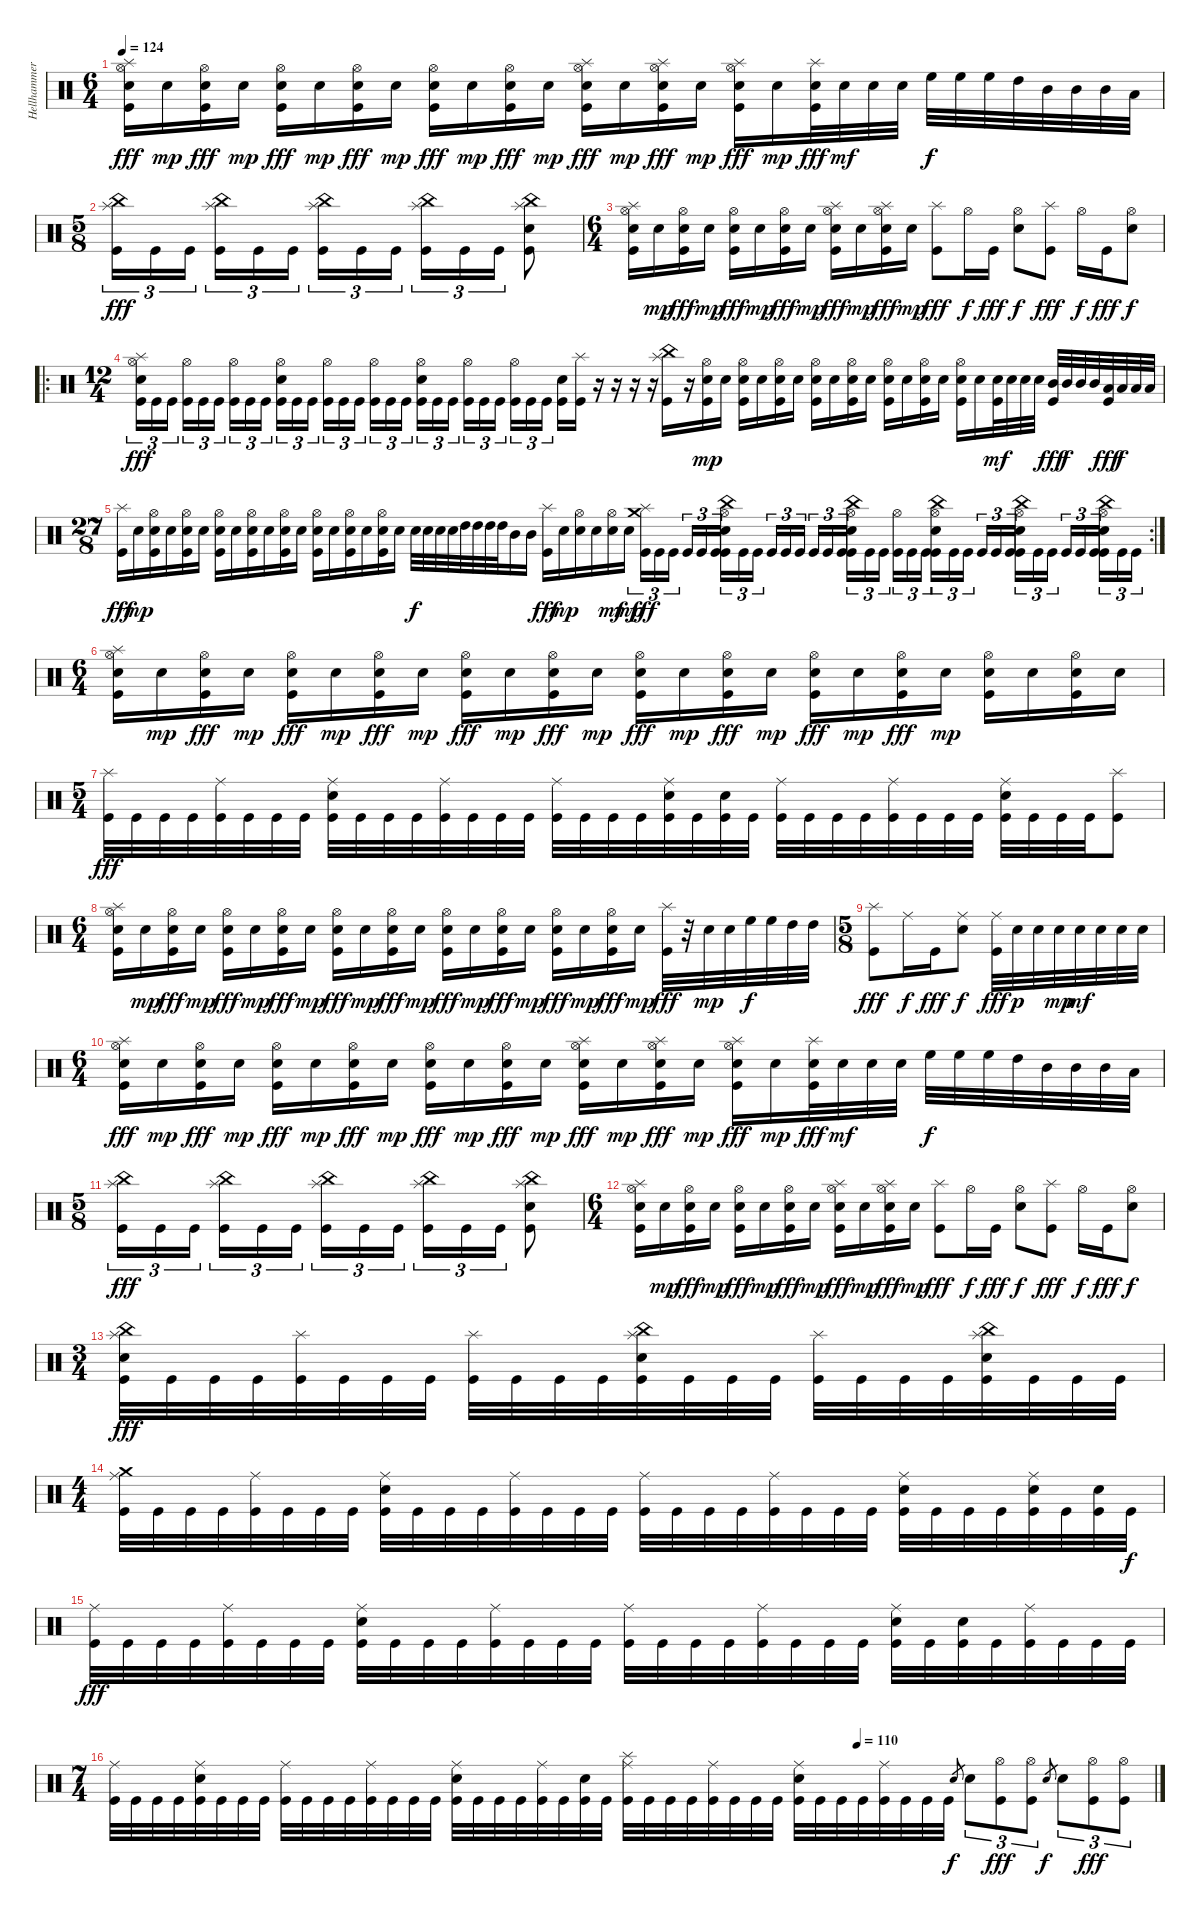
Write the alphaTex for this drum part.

\track ("Hellhammer" "Hellhammer") {instrument percussion}
\staff {score}
\articulation defaults
\ts (6 4)
\tempo 124
\clef neutral
\ks c
("Splash (hit)" "Hi-Hat (open)" "Electric Snare (hit)" "Kick (hit)").16{dy fff balance 8} "Electric Snare (hit)".16{dy mp} ("Hi-Hat (open)" "Electric Snare (hit)" "Kick (hit)").16{dy fff} "Electric Snare (hit)".16{dy mp} ("Hi-Hat (open)" "Electric Snare (hit)" "Kick (hit)").16{dy fff} "Electric Snare (hit)".16{dy mp} ("Hi-Hat (open)" "Electric Snare (hit)" "Kick (hit)").16{dy fff} "Electric Snare (hit)".16{dy mp} ("Hi-Hat (open)" "Electric Snare (hit)" "Kick (hit)").16{dy fff} "Electric Snare (hit)".16{dy mp} ("Hi-Hat (open)" "Electric Snare (hit)" "Kick (hit)").16{dy fff} "Electric Snare (hit)".16{dy mp} ("Splash (hit)" "Hi-Hat (open)" "Electric Snare (hit)" "Kick (hit)").16{dy fff} "Electric Snare (hit)".16{dy mp} ("Splash (hit)" "Hi-Hat (open)" "Electric Snare (hit)" "Kick (hit)").16{dy fff} "Electric Snare (hit)".16{dy mp} ("Splash (hit)" "Hi-Hat (open)" "Electric Snare (hit)" "Kick (hit)").16{dy fff} "Electric Snare (hit)".16{dy mp} ("Splash (hit)" "Electric Snare (hit)" "Kick (hit)").32{dy fff} "Electric Snare (hit)".32{dy mf} "Electric Snare (hit)".32 "Electric Snare (hit)".32 "High Floor Tom (hit)".32{dy f} "High Floor Tom (hit)".32 "High Floor Tom (hit)".32 "High Tom (hit)".32 "Mid Tom (hit)".32 "Mid Tom (hit)".32 "Mid Tom (hit)".32 "Low Tom (hit)".32 |
\ts (5 8)
("China (hit)" "Splash (hit)" "Kick (hit)").16{tu (3 2) dy fff} "Kick (hit)".16{tu (3 2)} "Kick (hit)".16{tu (3 2)} ("China (hit)" "Splash (hit)" "Kick (hit)").16{tu (3 2)} "Kick (hit)".16{tu (3 2)} "Kick (hit)".16{tu (3 2)} ("China (hit)" "Splash (hit)" "Kick (hit)").16{tu (3 2)} "Kick (hit)".16{tu (3 2)} "Kick (hit)".16{tu (3 2)} ("China (hit)" "Splash (hit)" "Kick (hit)").16{tu (3 2)} "Kick (hit)".16{tu (3 2)} "Kick (hit)".16{tu (3 2)} ("China (hit)" "Splash (hit)" "Electric Snare (hit)" "Kick (hit)").8 |
\ts (6 4)
("Splash (hit)" "Hi-Hat (open)" "Electric Snare (hit)" "Kick (hit)").16{balance 8} "Electric Snare (hit)".16{dy mp} ("Hi-Hat (open)" "Electric Snare (hit)" "Kick (hit)").16{dy fff} "Electric Snare (hit)".16{dy mp} ("Hi-Hat (open)" "Electric Snare (hit)" "Kick (hit)").16{dy fff} "Electric Snare (hit)".16{dy mp} ("Hi-Hat (open)" "Electric Snare (hit)" "Kick (hit)").16{dy fff} "Electric Snare (hit)".16{dy mp} ("Splash (hit)" "Hi-Hat (open)" "Electric Snare (hit)" "Kick (hit)").16{dy fff} "Electric Snare (hit)".16{dy mp} ("Splash (hit)" "Hi-Hat (open)" "Electric Snare (hit)" "Kick (hit)").16{dy fff} "Electric Snare (hit)".16{dy mp} ("Splash (hit)" "Kick (hit)").8{dy fff} "Hi-Hat (open)".16{dy f} "Kick (hit)".16{dy fff} ("Hi-Hat (open)" "Electric Snare (hit)").8{dy f} ("Splash (hit)" "Kick (hit)").8{dy fff} "Hi-Hat (open)".16{dy f} "Kick (hit)".16{dy fff} ("Hi-Hat (open)" "Electric Snare (hit)").8{dy f} |
\ro
\ts (12 4)
("Splash (hit)" "Hi-Hat (open)" "Electric Snare (hit)" "Kick (hit)").16{tu (3 2) dy fff} "Kick (hit)".16{tu (3 2)} "Kick (hit)".16{tu (3 2)} ("Hi-Hat (open)" "Kick (hit)").16{tu (3 2)} "Kick (hit)".16{tu (3 2)} "Kick (hit)".16{tu (3 2)} ("Hi-Hat (open)" "Kick (hit)").16{tu (3 2)} "Kick (hit)".16{tu (3 2)} "Kick (hit)".16{tu (3 2)} ("Hi-Hat (open)" "Electric Snare (hit)" "Kick (hit)").16{tu (3 2)} "Kick (hit)".16{tu (3 2)} "Kick (hit)".16{tu (3 2)} ("Hi-Hat (open)" "Kick (hit)").16{tu (3 2)} "Kick (hit)".16{tu (3 2)} "Kick (hit)".16{tu (3 2)} ("Hi-Hat (open)" "Kick (hit)").16{tu (3 2)} "Kick (hit)".16{tu (3 2)} "Kick (hit)".16{tu (3 2)} ("Hi-Hat (open)" "Electric Snare (hit)" "Kick (hit)").16{tu (3 2)} "Kick (hit)".16{tu (3 2)} "Kick (hit)".16{tu (3 2)} ("Hi-Hat (open)" "Kick (hit)").16{tu (3 2)} "Kick (hit)".16{tu (3 2)} "Kick (hit)".16{tu (3 2)} ("Hi-Hat (open)" "Kick (hit)").16{tu (3 2)} "Kick (hit)".16{tu (3 2)} "Kick (hit)".16{tu (3 2)} ("Electric Snare (hit)" "Kick (hit)").16 ("Splash (hit)" "Kick (hit)").16 r.16 r.16 r.16 r.16 ("China (hit)" "Splash (hit)" "Kick (hit)").16 r.16 ("Hi-Hat (open)" "Kick (hit)" "Electric Snare (hit)").16{dy mp} "Electric Snare (hit)".16 ("Hi-Hat (open)" "Kick (hit)" "Electric Snare (hit)").16 "Electric Snare (hit)".16 ("Hi-Hat (open)" "Kick (hit)" "Electric Snare (hit)").16 "Electric Snare (hit)".16 ("Hi-Hat (open)" "Kick (hit)" "Electric Snare (hit)").16 "Electric Snare (hit)".16 ("Hi-Hat (open)" "Kick (hit)" "Electric Snare (hit)").16 "Electric Snare (hit)".16 ("Hi-Hat (open)" "Kick (hit)" "Electric Snare (hit)").16 "Electric Snare (hit)".16 ("Hi-Hat (open)" "Kick (hit)" "Electric Snare (hit)").16 "Electric Snare (hit)".16 ("Hi-Hat (open)" "Kick (hit)" "Electric Snare (hit)").16 "Electric Snare (hit)".16 ("Kick (hit)" "Snare (hit) 2").32{dy mf} "Snare (hit) 2".32 "Snare (hit) 2".32 "Snare (hit) 2".32 ("Kick (hit)" "Mid Tom (hit)").32{dy fff} "Mid Tom (hit)".32{dy f} "Mid Tom (hit)".32 "Mid Tom (hit)".32 ("Kick (hit)" "Low Tom (hit)").32{dy fff} "Low Tom (hit)".32{dy f} "Low Tom (hit)".32 "Low Tom (hit)".32 |
\rc 2
\ts (27 8)
("Splash (hit)" "Kick (hit)").16{dy fff} "Electric Snare (hit)".16{dy mp} ("Hi-Hat (open)" "Kick (hit)" "Electric Snare (hit)").16 "Electric Snare (hit)".16 ("Hi-Hat (open)" "Kick (hit)" "Electric Snare (hit)").16 "Electric Snare (hit)".16 ("Hi-Hat (open)" "Kick (hit)" "Electric Snare (hit)").16 "Electric Snare (hit)".16 ("Hi-Hat (open)" "Kick (hit)" "Electric Snare (hit)").16 "Electric Snare (hit)".16 ("Hi-Hat (open)" "Kick (hit)" "Electric Snare (hit)").16 "Electric Snare (hit)".16 ("Hi-Hat (open)" "Kick (hit)" "Electric Snare (hit)").16 "Electric Snare (hit)".16 ("Hi-Hat (open)" "Kick (hit)" "Electric Snare (hit)").16 "Electric Snare (hit)".16 ("Hi-Hat (open)" "Kick (hit)" "Electric Snare (hit)").16 "Electric Snare (hit)".16 "Snare (hit) 2".32{dy f} "Snare (hit) 2".32 "Snare (hit) 2".32 "Snare (hit) 2".32 "High Tom (hit)".32 "High Tom (hit)".32 "High Tom (hit)".32 "High Tom (hit)".32 "Mid Tom (hit)".16 "Mid Tom (hit)".16 ("Splash (hit)" "Kick (hit)").16{dy fff} "Electric Snare (hit)".16{dy mp} ("Hi-Hat (open)" "Electric Snare (hit)").16 "Electric Snare (hit)".16 ("Hi-Hat (open)" "Electric Snare (hit)").16{dy mf} "Electric Snare (hit)".16{dy mp} ("Crash medium (hit)" "Splash (hit)" "Kick (hit)").16{tu (3 2) dy fff} "Kick (hit)".16{tu (3 2)} "Kick (hit)".16{tu (3 2)} "Kick (hit)".16{tu (3 2)} "Kick (hit)".16{tu (3 2)} "Kick (hit)".16{tu (3 2)} ("Hi-Hat (open)" "China (hit)" "Electric Snare (hit)" "Kick (hit)").16{tu (3 2)} "Kick (hit)".16{tu (3 2)} "Kick (hit)".16{tu (3 2)} "Kick (hit)".16{tu (3 2)} "Kick (hit)".16{tu (3 2)} "Kick (hit)".16{tu (3 2)} "Kick (hit)".16{tu (3 2)} "Kick (hit)".16{tu (3 2)} "Kick (hit)".16{tu (3 2)} ("Hi-Hat (open)" "China (hit)" "Electric Snare (hit)" "Kick (hit)").16{tu (3 2)} "Kick (hit)".16{tu (3 2)} "Kick (hit)".16{tu (3 2)} ("Hi-Hat (open)" "Kick (hit)").16{tu (3 2)} "Kick (hit)".16{tu (3 2)} "Kick (hit)".16{tu (3 2)} ("Hi-Hat (open)" "China (hit)" "Electric Snare (hit)" "Kick (hit)").16{tu (3 2)} "Kick (hit)".16{tu (3 2)} "Kick (hit)".16{tu (3 2)} "Kick (hit)".16{tu (3 2)} "Kick (hit)".16{tu (3 2)} "Kick (hit)".16{tu (3 2)} ("Hi-Hat (open)" "China (hit)" "Electric Snare (hit)" "Kick (hit)").16{tu (3 2)} "Kick (hit)".16{tu (3 2)} "Kick (hit)".16{tu (3 2)} "Kick (hit)".16{tu (3 2)} "Kick (hit)".16{tu (3 2)} "Kick (hit)".16{tu (3 2)} ("Hi-Hat (open)" "China (hit)" "Electric Snare (hit)" "Kick (hit)").16{tu (3 2)} "Kick (hit)".16{tu (3 2)} "Kick (hit)".16{tu (3 2)} |
\ts (6 4)
("Splash (hit)" "Hi-Hat (open)" "Electric Snare (hit)" "Kick (hit)").16 "Electric Snare (hit)".16{dy mp} ("Hi-Hat (open)" "Electric Snare (hit)" "Kick (hit)").16{dy fff} "Electric Snare (hit)".16{dy mp} ("Hi-Hat (open)" "Electric Snare (hit)" "Kick (hit)").16{dy fff} "Electric Snare (hit)".16{dy mp} ("Hi-Hat (open)" "Electric Snare (hit)" "Kick (hit)").16{dy fff} "Electric Snare (hit)".16{dy mp} ("Hi-Hat (open)" "Electric Snare (hit)" "Kick (hit)").16{dy fff} "Electric Snare (hit)".16{dy mp} ("Hi-Hat (open)" "Electric Snare (hit)" "Kick (hit)").16{dy fff} "Electric Snare (hit)".16{dy mp} ("Hi-Hat (open)" "Electric Snare (hit)" "Kick (hit)").16{dy fff} "Electric Snare (hit)".16{dy mp} ("Hi-Hat (open)" "Electric Snare (hit)" "Kick (hit)").16{dy fff} "Electric Snare (hit)".16{dy mp} ("Hi-Hat (open)" "Electric Snare (hit)" "Kick (hit)").16{dy fff} "Electric Snare (hit)".16{dy mp} ("Hi-Hat (open)" "Electric Snare (hit)" "Kick (hit)").16{dy fff} "Electric Snare (hit)".16{dy mp} ("Hi-Hat (open)" "Electric Snare (hit)" "Kick (hit)").16 "Electric Snare (hit)".16 ("Hi-Hat (open)" "Electric Snare (hit)" "Kick (hit)").16 "Electric Snare (hit)".16 |
\ts (5 4)
("Splash (hit)" "Kick (hit)").32{dy fff} "Kick (hit)".32 "Kick (hit)".32 "Kick (hit)".32 ("Ride (middle)" "Kick (hit)").32 "Kick (hit)".32 "Kick (hit)".32 "Kick (hit)".32 ("Ride (middle)" "Electric Snare (hit)" "Kick (hit)").32 "Kick (hit)".32 "Kick (hit)".32 "Kick (hit)".32 ("Ride (middle)" "Kick (hit)").32 "Kick (hit)".32 "Kick (hit)".32 "Kick (hit)".32 ("Ride (middle)" "Kick (hit)").32 "Kick (hit)".32 "Kick (hit)".32 "Kick (hit)".32 ("Ride (middle)" "Electric Snare (hit)" "Kick (hit)").32 "Kick (hit)".32 ("Electric Snare (hit)" "Kick (hit)").32 "Kick (hit)".32 ("Ride (middle)" "Kick (hit)").32 "Kick (hit)".32 "Kick (hit)".32 "Kick (hit)".32 ("Ride (middle)" "Kick (hit)").32 "Kick (hit)".32 "Kick (hit)".32 "Kick (hit)".32 ("Ride (middle)" "Electric Snare (hit)" "Kick (hit)").32 "Kick (hit)".32 "Kick (hit)".32 "Kick (hit)".32 ("Splash (hit)" "Kick (hit)").8 |
\ts (6 4)
("Splash (hit)" "Hi-Hat (open)" "Electric Snare (hit)" "Kick (hit)").16 "Electric Snare (hit)".16{dy mp} ("Hi-Hat (open)" "Electric Snare (hit)" "Kick (hit)").16{dy fff} "Electric Snare (hit)".16{dy mp} ("Hi-Hat (open)" "Electric Snare (hit)" "Kick (hit)").16{dy fff} "Electric Snare (hit)".16{dy mp} ("Hi-Hat (open)" "Electric Snare (hit)" "Kick (hit)").16{dy fff} "Electric Snare (hit)".16{dy mp} ("Hi-Hat (open)" "Electric Snare (hit)" "Kick (hit)").16{dy fff} "Electric Snare (hit)".16{dy mp} ("Hi-Hat (open)" "Electric Snare (hit)" "Kick (hit)").16{dy fff} "Electric Snare (hit)".16{dy mp} ("Hi-Hat (open)" "Electric Snare (hit)" "Kick (hit)").16{dy fff} "Electric Snare (hit)".16{dy mp} ("Hi-Hat (open)" "Electric Snare (hit)" "Kick (hit)").16{dy fff} "Electric Snare (hit)".16{dy mp} ("Hi-Hat (open)" "Electric Snare (hit)" "Kick (hit)").16{dy fff} "Electric Snare (hit)".16{dy mp} ("Hi-Hat (open)" "Electric Snare (hit)" "Kick (hit)").16{dy fff} "Electric Snare (hit)".16{dy mp} ("Splash (hit)" "Kick (hit)").32{dy fff} r.32 "Electric Snare (hit)".32{dy mp} "Electric Snare (hit)".32 "High Floor Tom (hit)".32{dy f} "High Floor Tom (hit)".32 "High Tom (hit)".32 "High Tom (hit)".32 |
\ts (5 8)
("Splash (hit)" "Kick (hit)").8{dy fff} "Ride (middle)".16{dy f} "Kick (hit)".16{dy fff} ("Ride (middle)" "Electric Snare (hit)").8{dy f} ("Ride (middle)" "Kick (hit)").32{dy fff} "Electric Snare (hit)".32{dy p} "Electric Snare (hit)".32 "Electric Snare (hit)".32{dy mp} "Snare (hit) 2".32{dy mf} "Snare (hit) 2".32 "Snare (hit) 2".32 "Snare (hit) 2".32 |
\ts (6 4)
("Splash (hit)" "Hi-Hat (open)" "Electric Snare (hit)" "Kick (hit)").16{dy fff balance 8} "Electric Snare (hit)".16{dy mp} ("Hi-Hat (open)" "Electric Snare (hit)" "Kick (hit)").16{dy fff} "Electric Snare (hit)".16{dy mp} ("Hi-Hat (open)" "Electric Snare (hit)" "Kick (hit)").16{dy fff} "Electric Snare (hit)".16{dy mp} ("Hi-Hat (open)" "Electric Snare (hit)" "Kick (hit)").16{dy fff} "Electric Snare (hit)".16{dy mp} ("Hi-Hat (open)" "Electric Snare (hit)" "Kick (hit)").16{dy fff} "Electric Snare (hit)".16{dy mp} ("Hi-Hat (open)" "Electric Snare (hit)" "Kick (hit)").16{dy fff} "Electric Snare (hit)".16{dy mp} ("Splash (hit)" "Hi-Hat (open)" "Electric Snare (hit)" "Kick (hit)").16{dy fff} "Electric Snare (hit)".16{dy mp} ("Splash (hit)" "Hi-Hat (open)" "Electric Snare (hit)" "Kick (hit)").16{dy fff} "Electric Snare (hit)".16{dy mp} ("Splash (hit)" "Hi-Hat (open)" "Electric Snare (hit)" "Kick (hit)").16{dy fff} "Electric Snare (hit)".16{dy mp} ("Splash (hit)" "Electric Snare (hit)" "Kick (hit)").32{dy fff} "Electric Snare (hit)".32{dy mf} "Electric Snare (hit)".32 "Electric Snare (hit)".32 "High Floor Tom (hit)".32{dy f} "High Floor Tom (hit)".32 "High Floor Tom (hit)".32 "High Tom (hit)".32 "Mid Tom (hit)".32 "Mid Tom (hit)".32 "Mid Tom (hit)".32 "Low Tom (hit)".32 |
\ts (5 8)
("China (hit)" "Splash (hit)" "Kick (hit)").16{tu (3 2) dy fff} "Kick (hit)".16{tu (3 2)} "Kick (hit)".16{tu (3 2)} ("China (hit)" "Splash (hit)" "Kick (hit)").16{tu (3 2)} "Kick (hit)".16{tu (3 2)} "Kick (hit)".16{tu (3 2)} ("China (hit)" "Splash (hit)" "Kick (hit)").16{tu (3 2)} "Kick (hit)".16{tu (3 2)} "Kick (hit)".16{tu (3 2)} ("China (hit)" "Splash (hit)" "Kick (hit)").16{tu (3 2)} "Kick (hit)".16{tu (3 2)} "Kick (hit)".16{tu (3 2)} ("China (hit)" "Splash (hit)" "Electric Snare (hit)" "Kick (hit)").8 |
\ts (6 4)
("Splash (hit)" "Hi-Hat (open)" "Electric Snare (hit)" "Kick (hit)").16{balance 8} "Electric Snare (hit)".16{dy mp} ("Hi-Hat (open)" "Electric Snare (hit)" "Kick (hit)").16{dy fff} "Electric Snare (hit)".16{dy mp} ("Hi-Hat (open)" "Electric Snare (hit)" "Kick (hit)").16{dy fff} "Electric Snare (hit)".16{dy mp} ("Hi-Hat (open)" "Electric Snare (hit)" "Kick (hit)").16{dy fff} "Electric Snare (hit)".16{dy mp} ("Splash (hit)" "Hi-Hat (open)" "Electric Snare (hit)" "Kick (hit)").16{dy fff} "Electric Snare (hit)".16{dy mp} ("Splash (hit)" "Hi-Hat (open)" "Electric Snare (hit)" "Kick (hit)").16{dy fff} "Electric Snare (hit)".16{dy mp} ("Splash (hit)" "Kick (hit)").8{dy fff} "Hi-Hat (open)".16{dy f} "Kick (hit)".16{dy fff} ("Hi-Hat (open)" "Electric Snare (hit)").8{dy f} ("Splash (hit)" "Kick (hit)").8{dy fff} "Hi-Hat (open)".16{dy f} "Kick (hit)".16{dy fff} ("Hi-Hat (open)" "Electric Snare (hit)").8{dy f} |
\ts (3 4)
("Splash (hit)" "China (hit)" "Electric Snare (hit)" "Kick (hit)").32{dy fff} "Kick (hit)".32 "Kick (hit)".32 "Kick (hit)".32 ("Splash (hit)" "Kick (hit)").32 "Kick (hit)".32 "Kick (hit)".32 "Kick (hit)".32 ("Splash (hit)" "Kick (hit)").32 "Kick (hit)".32 "Kick (hit)".32 "Kick (hit)".32 ("Splash (hit)" "China (hit)" "Electric Snare (hit)" "Kick (hit)").32 "Kick (hit)".32 "Kick (hit)".32 "Kick (hit)".32 ("Splash (hit)" "Kick (hit)").32 "Kick (hit)".32 "Kick (hit)".32 "Kick (hit)".32 ("Splash (hit)" "China (hit)" "Electric Snare (hit)" "Kick (hit)").32 "Kick (hit)".32 "Kick (hit)".32 "Kick (hit)".32 |
\ts (4 4)
("Crash medium (hit)" "Ride (middle)" "Kick (hit)").32 "Kick (hit)".32 "Kick (hit)".32 "Kick (hit)".32 ("Ride (middle)" "Kick (hit)").32 "Kick (hit)".32 "Kick (hit)".32 "Kick (hit)".32 ("Ride (middle)" "Electric Snare (hit)" "Kick (hit)").32 "Kick (hit)".32 "Kick (hit)".32 "Kick (hit)".32 ("Ride (middle)" "Kick (hit)").32 "Kick (hit)".32 "Kick (hit)".32 "Kick (hit)".32 ("Ride (middle)" "Kick (hit)").32 "Kick (hit)".32 "Kick (hit)".32 "Kick (hit)".32 ("Ride (middle)" "Kick (hit)").32 "Kick (hit)".32 "Kick (hit)".32 "Kick (hit)".32 ("Ride (middle)" "Electric Snare (hit)" "Kick (hit)").32 "Kick (hit)".32 "Kick (hit)".32 "Kick (hit)".32 ("Ride (middle)" "Electric Snare (hit)" "Kick (hit)").32 "Kick (hit)".32 ("Electric Snare (hit)" "Kick (hit)").32 "Kick (hit)".32{dy f} |
("Ride (middle)" "Kick (hit)").32{dy fff} "Kick (hit)".32 "Kick (hit)".32 "Kick (hit)".32 ("Ride (middle)" "Kick (hit)").32 "Kick (hit)".32 "Kick (hit)".32 "Kick (hit)".32 ("Ride (middle)" "Electric Snare (hit)" "Kick (hit)").32 "Kick (hit)".32 "Kick (hit)".32 "Kick (hit)".32 ("Ride (middle)" "Kick (hit)").32 "Kick (hit)".32 "Kick (hit)".32 "Kick (hit)".32 ("Ride (middle)" "Kick (hit)").32 "Kick (hit)".32 "Kick (hit)".32 "Kick (hit)".32 ("Ride (middle)" "Kick (hit)").32 "Kick (hit)".32 "Kick (hit)".32 "Kick (hit)".32 ("Ride (middle)" "Electric Snare (hit)" "Kick (hit)").32 "Kick (hit)".32 ("Electric Snare (hit)" "Kick (hit)").32 "Kick (hit)".32 ("Ride (middle)" "Kick (hit)").32 "Kick (hit)".32 "Kick (hit)".32 "Kick (hit)".32 |
\ts (7 4)
\tempo (110 0.7142857142857143)
("Ride (middle)" "Kick (hit)").32 "Kick (hit)".32 "Kick (hit)".32 "Kick (hit)".32 ("Ride (middle)" "Electric Snare (hit)" "Kick (hit)").32 "Kick (hit)".32 "Kick (hit)".32 "Kick (hit)".32 ("Ride (middle)" "Kick (hit)").32 "Kick (hit)".32 "Kick (hit)".32 "Kick (hit)".32 ("Ride (middle)" "Kick (hit)").32 "Kick (hit)".32 "Kick (hit)".32 "Kick (hit)".32 ("Ride (middle)" "Electric Snare (hit)" "Kick (hit)").32 "Kick (hit)".32 "Kick (hit)".32 "Kick (hit)".32 ("Ride (middle)" "Kick (hit)").32 "Kick (hit)".32 ("Electric Snare (hit)" "Kick (hit)").32 "Kick (hit)".32 ("Splash (hit)" "Ride (middle)" "Kick (hit)").32 "Kick (hit)".32 "Kick (hit)".32 "Kick (hit)".32 ("Ride (middle)" "Kick (hit)").32 "Kick (hit)".32 "Kick (hit)".32 "Kick (hit)".32 ("Ride (middle)" "Electric Snare (hit)" "Kick (hit)").32 "Kick (hit)".32 "Kick (hit)".32 "Kick (hit)".32 ("Ride (middle)" "Kick (hit)").32 "Kick (hit)".32 "Kick (hit)".32 "Kick (hit)".32 "Electric Snare (hit)".8{gr dy f} "Electric Snare (hit)".8{tu (3 2)} ("Hi-Hat (open)" "Kick (hit)").8{tu (3 2) dy fff} ("Hi-Hat (open)" "Kick (hit)").8{tu (3 2)} "Electric Snare (hit)".8{gr dy f} "Electric Snare (hit)".8{tu (3 2)} ("Hi-Hat (open)" "Kick (hit)").8{tu (3 2) dy fff} ("Hi-Hat (open)" "Kick (hit)").8{tu (3 2)}
